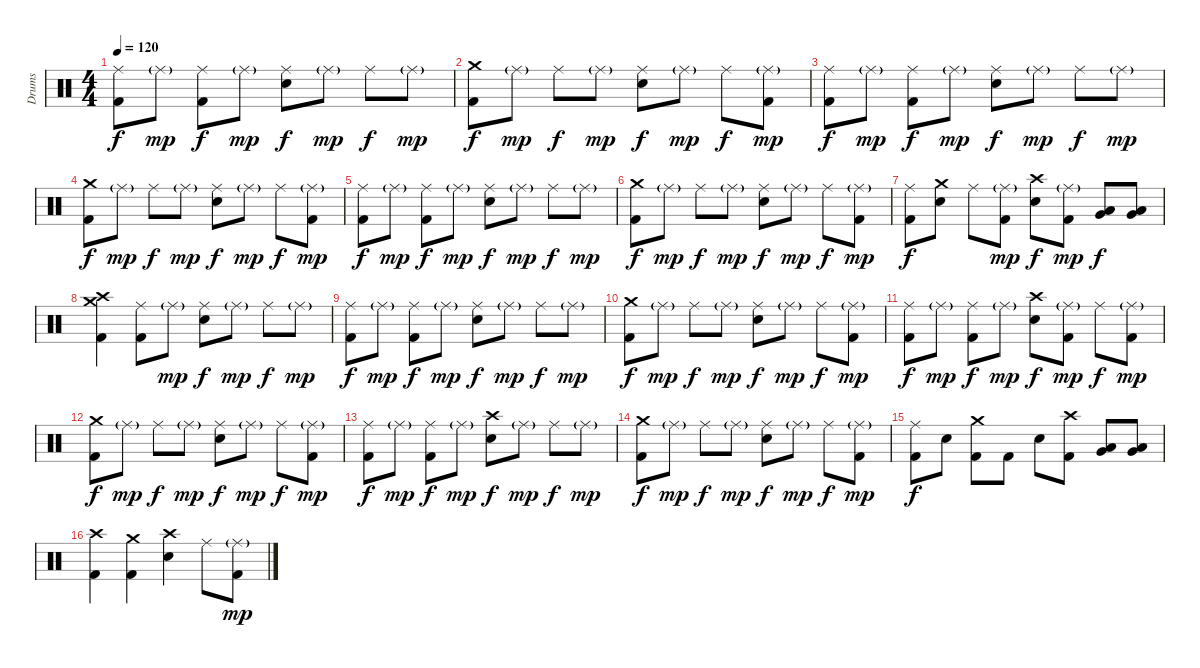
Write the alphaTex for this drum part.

\track ("Drums" "Drums") {instrument percussion}
\staff {score}
\articulation defaults
\ts (4 4)
\tempo 120
\clef neutral
\ks c
("Ride (middle)" "Kick (hit) 2").8{dy f} "Ride (middle)"{g}.8{dy mp} ("Ride (middle)" "Kick (hit) 2").8{dy f} "Ride (middle)"{g}.8{dy mp} ("Ride (middle)" "Snare (hit) 2").8{dy f} "Ride (middle)"{g}.8{dy mp} "Ride (middle)".8{dy f} "Ride (middle)"{g}.8{dy mp} |
("Crash medium (hit)" "Kick (hit) 2").8{dy f} "Ride (middle)"{g}.8{dy mp} "Ride (middle)".8{dy f} "Ride (middle)"{g}.8{dy mp} ("Ride (middle)" "Snare (hit) 2").8{dy f} "Ride (middle)"{g}.8{dy mp} "Ride (middle)".8{dy f} ("Ride (middle)"{g} "Kick (hit) 2").8{dy mp} |
("Ride (middle)" "Kick (hit) 2").8{dy f} "Ride (middle)"{g}.8{dy mp} ("Ride (middle)" "Kick (hit) 2").8{dy f} "Ride (middle)"{g}.8{dy mp} ("Ride (middle)" "Snare (hit) 2").8{dy f} "Ride (middle)"{g}.8{dy mp} "Ride (middle)".8{dy f} "Ride (middle)"{g}.8{dy mp} |
("Crash medium (hit)" "Kick (hit) 2").8{dy f} "Ride (middle)"{g}.8{dy mp} "Ride (middle)".8{dy f} "Ride (middle)"{g}.8{dy mp} ("Ride (middle)" "Snare (hit) 2").8{dy f} "Ride (middle)"{g}.8{dy mp} "Ride (middle)".8{dy f} ("Ride (middle)"{g} "Kick (hit) 2").8{dy mp} |
("Ride (middle)" "Kick (hit) 2").8{dy f} "Ride (middle)"{g}.8{dy mp} ("Ride (middle)" "Kick (hit) 2").8{dy f} "Ride (middle)"{g}.8{dy mp} ("Ride (middle)" "Snare (hit) 2").8{dy f} "Ride (middle)"{g}.8{dy mp} "Ride (middle)".8{dy f} "Ride (middle)"{g}.8{dy mp} |
("Crash medium (hit)" "Kick (hit) 2").8{dy f} "Ride (middle)"{g}.8{dy mp} "Ride (middle)".8{dy f} "Ride (middle)"{g}.8{dy mp} ("Ride (middle)" "Snare (hit) 2").8{dy f} "Ride (middle)"{g}.8{dy mp} "Ride (middle)".8{dy f} ("Ride (middle)"{g} "Kick (hit) 2").8{dy mp} |
("Ride (middle)" "Kick (hit) 2").8{dy f} ("Crash medium (hit)" "Snare (hit) 2").8 "Ride (middle)".8 ("Ride (middle)"{g} "Kick (hit) 2").8{dy mp} ("Crash high (hit)" "Snare (hit) 2").8{dy f} ("Ride (middle)"{g} "Kick (hit) 2").8{dy mp} ("Low Tom (hit)" "Very Low Tom (hit)").8{dy f} ("Low Tom (hit)" "Very Low Tom (hit)").8 |
("Crash medium (hit)" "Crash high (hit)" "Kick (hit) 2").4 ("Ride (middle)" "Kick (hit) 2").8 "Ride (middle)"{g}.8{dy mp} ("Ride (middle)" "Snare (hit) 2").8{dy f} "Ride (middle)"{g}.8{dy mp} "Ride (middle)".8{dy f} "Ride (middle)"{g}.8{dy mp} |
("Ride (middle)" "Kick (hit) 2").8{dy f} "Ride (middle)"{g}.8{dy mp} ("Ride (middle)" "Kick (hit) 2").8{dy f} "Ride (middle)"{g}.8{dy mp} ("Ride (middle)" "Snare (hit) 2").8{dy f} "Ride (middle)"{g}.8{dy mp} "Ride (middle)".8{dy f} "Ride (middle)"{g}.8{dy mp} |
("Crash medium (hit)" "Kick (hit) 2").8{dy f} "Ride (middle)"{g}.8{dy mp} "Ride (middle)".8{dy f} "Ride (middle)"{g}.8{dy mp} ("Ride (middle)" "Snare (hit) 2").8{dy f} "Ride (middle)"{g}.8{dy mp} "Ride (middle)".8{dy f} ("Ride (middle)"{g} "Kick (hit) 2").8{dy mp} |
("Ride (middle)" "Kick (hit) 2").8{dy f} "Ride (middle)"{g}.8{dy mp} ("Ride (middle)" "Kick (hit) 2").8{dy f} "Ride (middle)"{g}.8{dy mp} ("Crash high (hit)" "Snare (hit) 2").8{dy f} ("Ride (middle)"{g} "Kick (hit) 2").8{dy mp} "Ride (middle)".8{dy f} ("Ride (middle)"{g} "Kick (hit) 2").8{dy mp} |
("Crash medium (hit)" "Kick (hit) 2").8{dy f} "Ride (middle)"{g}.8{dy mp} "Ride (middle)".8{dy f} "Ride (middle)"{g}.8{dy mp} ("Ride (middle)" "Snare (hit) 2").8{dy f} "Ride (middle)"{g}.8{dy mp} "Ride (middle)".8{dy f} ("Ride (middle)"{g} "Kick (hit) 2").8{dy mp} |
("Ride (middle)" "Kick (hit) 2").8{dy f} "Ride (middle)"{g}.8{dy mp} ("Ride (middle)" "Kick (hit) 2").8{dy f} "Ride (middle)"{g}.8{dy mp} ("Crash high (hit)" "Snare (hit) 2").8{dy f} "Ride (middle)"{g}.8{dy mp} "Ride (middle)".8{dy f} "Ride (middle)"{g}.8{dy mp} |
("Crash medium (hit)" "Kick (hit) 2").8{dy f} "Ride (middle)"{g}.8{dy mp} "Ride (middle)".8{dy f} "Ride (middle)"{g}.8{dy mp} ("Ride (middle)" "Snare (hit) 2").8{dy f} "Ride (middle)"{g}.8{dy mp} "Ride (middle)".8{dy f} ("Ride (middle)"{g} "Kick (hit) 2").8{dy mp} |
("Ride (middle)" "Kick (hit) 2").8{dy f} "Snare (hit) 2".8 ("Crash medium (hit)" "Kick (hit) 2").8 "Kick (hit) 2".8 "Snare (hit) 2".8 ("Crash high (hit)" "Kick (hit) 2").8 ("Low Tom (hit)" "Very Low Tom (hit)").8 ("Low Tom (hit)" "Very Low Tom (hit)").8 |
("Crash high (hit)" "Kick (hit) 2").4 ("Crash medium (hit)" "Kick (hit) 2").4 ("Crash high (hit)" "Snare (hit) 2").4 "Ride (middle)".8 ("Ride (middle)"{g} "Kick (hit) 2").8{dy mp}
